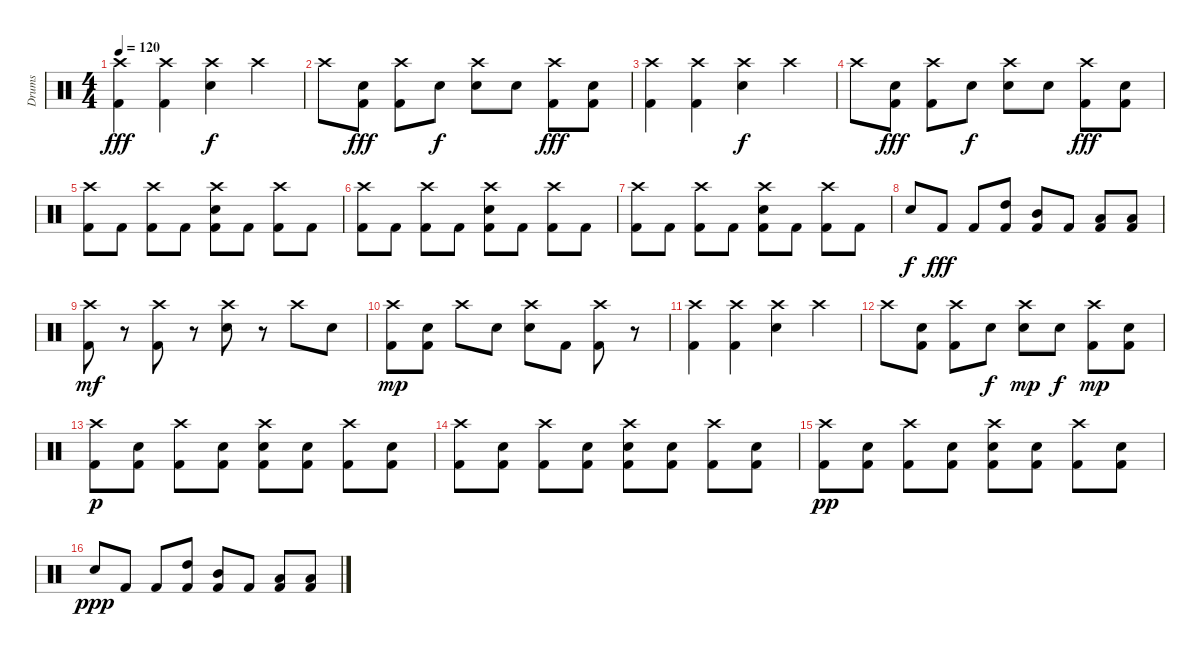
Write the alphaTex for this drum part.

\track ("Drums" "Drums") {instrument percussion}
\staff {score}
\articulation defaults
\ts (4 4)
\tempo 120
\clef neutral
\ks c
("Crash high (hit)" "Kick (hit) 2").4{dy fff} ("Crash high (hit)" "Kick (hit) 2").4 ("Crash high (hit)" "Electric Snare (hit)").4{dy f} "Crash high (hit)".4 |
"Crash high (hit)".8 ("Snare (hit)" "Kick (hit) 2").8{dy fff} ("Crash high (hit)" "Kick (hit) 2").8 "Snare (hit)".8{dy f} ("Crash high (hit)" "Electric Snare (hit)").8 "Snare (hit)".8 ("Crash high (hit)" "Kick (hit) 2").8{dy fff} ("Snare (hit)" "Kick (hit) 2").8 |
("Crash high (hit)" "Kick (hit) 2").4 ("Crash high (hit)" "Kick (hit) 2").4 ("Crash high (hit)" "Electric Snare (hit)").4{dy f} "Crash high (hit)".4 |
"Crash high (hit)".8 ("Snare (hit)" "Kick (hit) 2").8{dy fff} ("Crash high (hit)" "Kick (hit) 2").8 "Snare (hit)".8{dy f} ("Crash high (hit)" "Electric Snare (hit)").8 "Snare (hit)".8 ("Crash high (hit)" "Kick (hit) 2").8{dy fff} ("Snare (hit)" "Kick (hit) 2").8 |
("Crash high (hit)" "Kick (hit) 2").8 "Kick (hit) 2".8 ("Crash high (hit)" "Kick (hit) 2").8 "Kick (hit) 2".8 ("Crash high (hit)" "Electric Snare (hit)" "Kick (hit) 2").8 "Kick (hit) 2".8 ("Crash high (hit)" "Kick (hit) 2").8 "Kick (hit) 2".8 |
("Crash high (hit)" "Kick (hit) 2").8 "Kick (hit) 2".8 ("Crash high (hit)" "Kick (hit) 2").8 "Kick (hit) 2".8 ("Crash high (hit)" "Electric Snare (hit)" "Kick (hit) 2").8 "Kick (hit) 2".8 ("Crash high (hit)" "Kick (hit) 2").8 "Kick (hit) 2".8 |
("Crash high (hit)" "Kick (hit) 2").8 "Kick (hit) 2".8 ("Crash high (hit)" "Kick (hit) 2").8 "Kick (hit) 2".8 ("Crash high (hit)" "Electric Snare (hit)" "Kick (hit) 2").8 "Kick (hit) 2".8 ("Crash high (hit)" "Kick (hit) 2").8 "Kick (hit) 2".8 |
"Electric Snare (hit)".8{dy f} "Kick (hit) 2".8{dy fff} "Kick (hit) 2".8 ("High Tom (hit)" "Kick (hit) 2").8 ("Mid Tom (hit)" "Kick (hit) 2").8 "Kick (hit) 2".8 ("Low Tom (hit)" "Kick (hit) 2").8 ("Low Floor Tom (hit)" "Kick (hit) 2").8 |
("Crash high (hit)" "Kick (hit) 2").8{dy mf} r.8 ("Crash high (hit)" "Kick (hit) 2").8 r.8 ("Crash high (hit)" "Electric Snare (hit)").8 r.8 "Crash high (hit)".8 "Snare (hit)".8 |
("Crash high (hit)" "Kick (hit) 2").8{dy mp} ("Snare (hit)" "Kick (hit) 2").8 "Crash high (hit)".8 "Snare (hit)".8 ("Crash high (hit)" "Electric Snare (hit)").8 "Kick (hit) 2".8 ("Crash high (hit)" "Kick (hit) 2").8 r.8 |
("Crash high (hit)" "Kick (hit) 2").4 ("Crash high (hit)" "Kick (hit) 2").4 ("Crash high (hit)" "Electric Snare (hit)").4 "Crash high (hit)".4 |
"Crash high (hit)".8 ("Snare (hit)" "Kick (hit) 2").8 ("Crash high (hit)" "Kick (hit) 2").8 "Snare (hit)".8{dy f} ("Crash high (hit)" "Electric Snare (hit)").8{dy mp} "Snare (hit)".8{dy f} ("Crash high (hit)" "Kick (hit) 2").8{dy mp} ("Snare (hit)" "Kick (hit) 2").8 |
("Crash high (hit)" "Kick (hit) 2").8{dy p} ("Snare (hit)" "Kick (hit) 2").8 ("Crash high (hit)" "Kick (hit) 2").8 ("Snare (hit)" "Kick (hit) 2").8 ("Crash high (hit)" "Electric Snare (hit)" "Kick (hit) 2").8 ("Snare (hit)" "Kick (hit) 2").8 ("Crash high (hit)" "Kick (hit) 2").8 ("Snare (hit)" "Kick (hit) 2").8 |
("Crash high (hit)" "Kick (hit) 2").8 ("Snare (hit)" "Kick (hit) 2").8 ("Crash high (hit)" "Kick (hit) 2").8 ("Snare (hit)" "Kick (hit) 2").8 ("Crash high (hit)" "Electric Snare (hit)" "Kick (hit) 2").8 ("Snare (hit)" "Kick (hit) 2").8 ("Crash high (hit)" "Kick (hit) 2").8 ("Snare (hit)" "Kick (hit) 2").8 |
("Crash high (hit)" "Kick (hit) 2").8{dy pp} ("Snare (hit)" "Kick (hit) 2").8 ("Crash high (hit)" "Kick (hit) 2").8 ("Snare (hit)" "Kick (hit) 2").8 ("Crash high (hit)" "Electric Snare (hit)" "Kick (hit) 2").8 ("Snare (hit)" "Kick (hit) 2").8 ("Crash high (hit)" "Kick (hit) 2").8 ("Snare (hit)" "Kick (hit) 2").8 |
"Electric Snare (hit)".8{dy ppp} "Kick (hit) 2".8 "Kick (hit) 2".8 ("High Tom (hit)" "Kick (hit) 2").8 ("Mid Tom (hit)" "Kick (hit) 2").8 "Kick (hit) 2".8 ("Low Tom (hit)" "Kick (hit) 2").8 ("Low Floor Tom (hit)" "Kick (hit) 2").8
